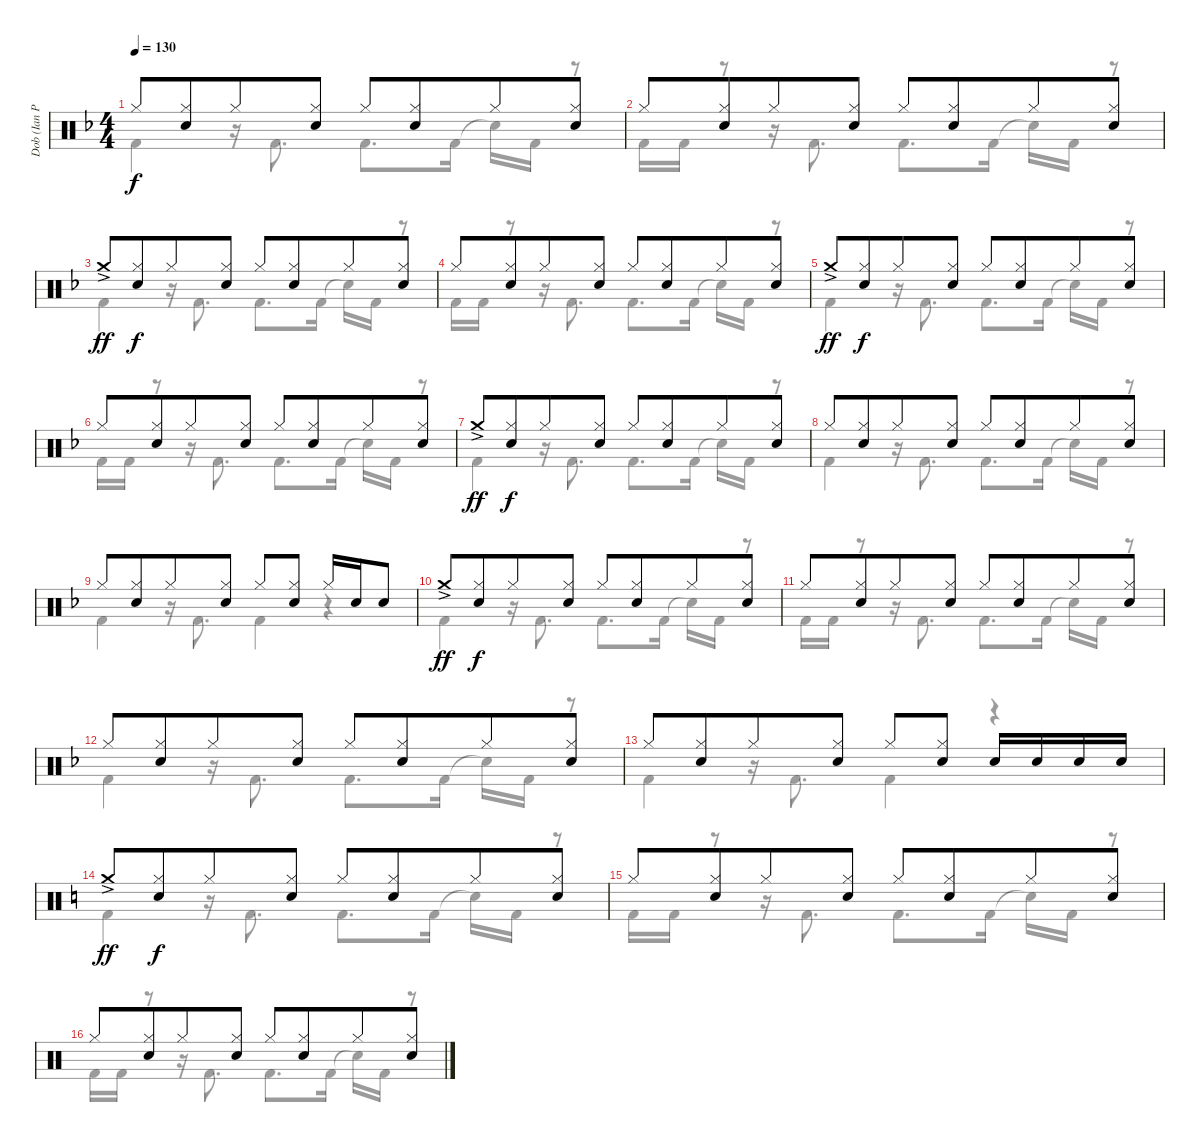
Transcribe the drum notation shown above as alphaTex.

\track ("Dob (Ian Paice)" "Dob (Ian P") {instrument percussion}
\staff {score}
\articulation defaults
\voice
\ts (4 4)
\tempo 130
\clef neutral
\ks f "Hi-Hat (closed)".8{dy f}
("Hi-Hat (closed)" "Electric Snare (hit)").8{beam merge} "Hi-Hat (closed)".8 ("Hi-Hat (closed)" "Electric Snare (hit)").8 "Hi-Hat (closed)".8 ("Hi-Hat (closed)" "Electric Snare (hit)").8{beam merge} "Hi-Hat (closed)".8 ("Hi-Hat (closed)" "Electric Snare (hit)").8 |
"Hi-Hat (closed)".8 ("Hi-Hat (closed)" "Electric Snare (hit)").8{beam merge} "Hi-Hat (closed)".8 ("Hi-Hat (closed)" "Electric Snare (hit)").8 "Hi-Hat (closed)".8 ("Hi-Hat (closed)" "Electric Snare (hit)").8{beam merge} "Hi-Hat (closed)".8 ("Hi-Hat (closed)" "Electric Snare (hit)").8 |
"Crash medium (hit)"{ac}.8{dy ff} ("Hi-Hat (closed)" "Electric Snare (hit)").8{dy f beam merge} "Hi-Hat (closed)".8 ("Hi-Hat (closed)" "Electric Snare (hit)").8 "Hi-Hat (closed)".8 ("Hi-Hat (closed)" "Electric Snare (hit)").8{beam merge} "Hi-Hat (closed)".8 ("Hi-Hat (closed)" "Electric Snare (hit)").8 |
"Hi-Hat (closed)".8 ("Hi-Hat (closed)" "Electric Snare (hit)").8{beam merge} "Hi-Hat (closed)".8 ("Hi-Hat (closed)" "Electric Snare (hit)").8 "Hi-Hat (closed)".8 ("Hi-Hat (closed)" "Electric Snare (hit)").8{beam merge} "Hi-Hat (closed)".8 ("Hi-Hat (closed)" "Electric Snare (hit)").8 |
"Crash medium (hit)"{ac}.8{dy ff} ("Hi-Hat (closed)" "Electric Snare (hit)").8{dy f beam merge} "Hi-Hat (closed)".8 ("Hi-Hat (closed)" "Electric Snare (hit)").8 "Hi-Hat (closed)".8 ("Hi-Hat (closed)" "Electric Snare (hit)").8{beam merge} "Hi-Hat (closed)".8 ("Hi-Hat (closed)" "Electric Snare (hit)").8 |
"Hi-Hat (closed)".8 ("Hi-Hat (closed)" "Electric Snare (hit)").8{beam merge} "Hi-Hat (closed)".8 ("Hi-Hat (closed)" "Electric Snare (hit)").8 "Hi-Hat (closed)".8 ("Hi-Hat (closed)" "Electric Snare (hit)").8{beam merge} "Hi-Hat (closed)".8 ("Hi-Hat (closed)" "Electric Snare (hit)").8 |
"Crash medium (hit)"{ac}.8{dy ff} ("Hi-Hat (closed)" "Electric Snare (hit)").8{dy f beam merge} "Hi-Hat (closed)".8 ("Hi-Hat (closed)" "Electric Snare (hit)").8 "Hi-Hat (closed)".8 ("Hi-Hat (closed)" "Electric Snare (hit)").8{beam merge} "Hi-Hat (closed)".8 ("Hi-Hat (closed)" "Electric Snare (hit)").8 |
"Hi-Hat (closed)".8 ("Hi-Hat (closed)" "Electric Snare (hit)").8{beam merge} "Hi-Hat (closed)".8 ("Hi-Hat (closed)" "Electric Snare (hit)").8 "Hi-Hat (closed)".8 ("Hi-Hat (closed)" "Electric Snare (hit)").8{beam merge} "Hi-Hat (closed)".8 ("Hi-Hat (closed)" "Electric Snare (hit)").8 |
"Hi-Hat (closed)".8 ("Hi-Hat (closed)" "Electric Snare (hit)").8{beam merge} "Hi-Hat (closed)".8 ("Hi-Hat (closed)" "Electric Snare (hit)").8 "Hi-Hat (closed)".8 ("Hi-Hat (closed)" "Electric Snare (hit)").8 "Hi-Hat (closed)".16 "Electric Snare (hit)".16 "Electric Snare (hit)".8 |
"Crash medium (hit)"{ac}.8{dy ff} ("Hi-Hat (closed)" "Electric Snare (hit)").8{dy f beam merge} "Hi-Hat (closed)".8 ("Hi-Hat (closed)" "Electric Snare (hit)").8 "Hi-Hat (closed)".8 ("Hi-Hat (closed)" "Electric Snare (hit)").8{beam merge} "Hi-Hat (closed)".8 ("Hi-Hat (closed)" "Electric Snare (hit)").8 |
"Hi-Hat (closed)".8 ("Hi-Hat (closed)" "Electric Snare (hit)").8{beam merge} "Hi-Hat (closed)".8 ("Hi-Hat (closed)" "Electric Snare (hit)").8 "Hi-Hat (closed)".8 ("Hi-Hat (closed)" "Electric Snare (hit)").8{beam merge} "Hi-Hat (closed)".8 ("Hi-Hat (closed)" "Electric Snare (hit)").8 |
"Hi-Hat (closed)".8 ("Hi-Hat (closed)" "Electric Snare (hit)").8{beam merge} "Hi-Hat (closed)".8 ("Hi-Hat (closed)" "Electric Snare (hit)").8 "Hi-Hat (closed)".8 ("Hi-Hat (closed)" "Electric Snare (hit)").8{beam merge} "Hi-Hat (closed)".8 ("Hi-Hat (closed)" "Electric Snare (hit)").8 |
"Hi-Hat (closed)".8 ("Hi-Hat (closed)" "Electric Snare (hit)").8{beam merge} "Hi-Hat (closed)".8 ("Hi-Hat (closed)" "Electric Snare (hit)").8 "Hi-Hat (closed)".8 ("Hi-Hat (closed)" "Electric Snare (hit)").8 "Electric Snare (hit)".16 "Electric Snare (hit)".16 "Electric Snare (hit)".16 "Electric Snare (hit)".16 |
\ks c "Crash medium (hit)"{ac}.8{dy ff}
("Hi-Hat (closed)" "Electric Snare (hit)").8{dy f beam merge} "Hi-Hat (closed)".8 ("Hi-Hat (closed)" "Electric Snare (hit)").8 "Hi-Hat (closed)".8 ("Hi-Hat (closed)" "Electric Snare (hit)").8{beam merge} "Hi-Hat (closed)".8 ("Hi-Hat (closed)" "Electric Snare (hit)").8 |
"Hi-Hat (closed)".8 ("Hi-Hat (closed)" "Electric Snare (hit)").8{beam merge} "Hi-Hat (closed)".8 ("Hi-Hat (closed)" "Electric Snare (hit)").8 "Hi-Hat (closed)".8 ("Hi-Hat (closed)" "Electric Snare (hit)").8{beam merge} "Hi-Hat (closed)".8 ("Hi-Hat (closed)" "Electric Snare (hit)").8 |
"Hi-Hat (closed)".8 ("Hi-Hat (closed)" "Electric Snare (hit)").8{beam merge} "Hi-Hat (closed)".8 ("Hi-Hat (closed)" "Electric Snare (hit)").8 "Hi-Hat (closed)".8 ("Hi-Hat (closed)" "Electric Snare (hit)").8{beam merge} "Hi-Hat (closed)".8 ("Hi-Hat (closed)" "Electric Snare (hit)").8
\voice
\clef neutral
\ottava regular
\simile none
\ks f "Kick (hit) 2".4{dy f}
r.16 "Kick (hit) 2".8{d} "Kick (hit) 2".8{d} "Kick (hit) 2".16 "Snare (hit)"{t}.16 "Kick (hit) 2".16 r.8 |
"Kick (hit) 2".16 "Kick (hit) 2".16 r.8 r.16 "Kick (hit) 2".8{d} "Kick (hit) 2".8{d} "Kick (hit) 2".16 "Snare (hit)"{t}.16 "Kick (hit) 2".16 r.8 |
"Kick (hit) 2".4 r.16 "Kick (hit) 2".8{d} "Kick (hit) 2".8{d} "Kick (hit) 2".16 "Snare (hit)"{t}.16 "Kick (hit) 2".16 r.8 |
"Kick (hit) 2".16 "Kick (hit) 2".16 r.8 r.16 "Kick (hit) 2".8{d} "Kick (hit) 2".8{d} "Kick (hit) 2".16 "Snare (hit)"{t}.16 "Kick (hit) 2".16 r.8 |
"Kick (hit) 2".4 r.16 "Kick (hit) 2".8{d} "Kick (hit) 2".8{d} "Kick (hit) 2".16 "Snare (hit)"{t}.16 "Kick (hit) 2".16 r.8 |
"Kick (hit) 2".16 "Kick (hit) 2".16 r.8 r.16 "Kick (hit) 2".8{d} "Kick (hit) 2".8{d} "Kick (hit) 2".16 "Snare (hit)"{t}.16 "Kick (hit) 2".16 r.8 |
"Kick (hit) 2".4 r.16 "Kick (hit) 2".8{d} "Kick (hit) 2".8{d} "Kick (hit) 2".16 "Snare (hit)"{t}.16 "Kick (hit) 2".16 r.8 |
"Kick (hit) 2".4 r.16 "Kick (hit) 2".8{d} "Kick (hit) 2".8{d} "Kick (hit) 2".16 "Snare (hit)"{t}.16 "Kick (hit) 2".16 r.8 |
"Kick (hit) 2".4 r.16 "Kick (hit) 2".8{d} "Kick (hit) 2".4 r.4 |
"Kick (hit) 2".4 r.16 "Kick (hit) 2".8{d} "Kick (hit) 2".8{d} "Kick (hit) 2".16 "Snare (hit)"{t}.16 "Kick (hit) 2".16 r.8 |
"Kick (hit) 2".16 "Kick (hit) 2".16 r.8 r.16 "Kick (hit) 2".8{d} "Kick (hit) 2".8{d} "Kick (hit) 2".16 "Snare (hit)"{t}.16 "Kick (hit) 2".16 r.8 |
"Kick (hit) 2".4 r.16 "Kick (hit) 2".8{d} "Kick (hit) 2".8{d} "Kick (hit) 2".16 "Snare (hit)"{t}.16 "Kick (hit) 2".16 r.8 |
"Kick (hit) 2".4 r.16 "Kick (hit) 2".8{d} "Kick (hit) 2".4 r.4 |
\ks c "Kick (hit) 2".4
r.16 "Kick (hit) 2".8{d} "Kick (hit) 2".8{d} "Kick (hit) 2".16 "Snare (hit)"{t}.16 "Kick (hit) 2".16 r.8 |
"Kick (hit) 2".16 "Kick (hit) 2".16 r.8 r.16 "Kick (hit) 2".8{d} "Kick (hit) 2".8{d} "Kick (hit) 2".16 "Snare (hit)"{t}.16 "Kick (hit) 2".16 r.8 |
"Kick (hit) 2".16 "Kick (hit) 2".16 r.8 r.16 "Kick (hit) 2".8{d} "Kick (hit) 2".8{d} "Kick (hit) 2".16 "Snare (hit)"{t}.16 "Kick (hit) 2".16 r.8
